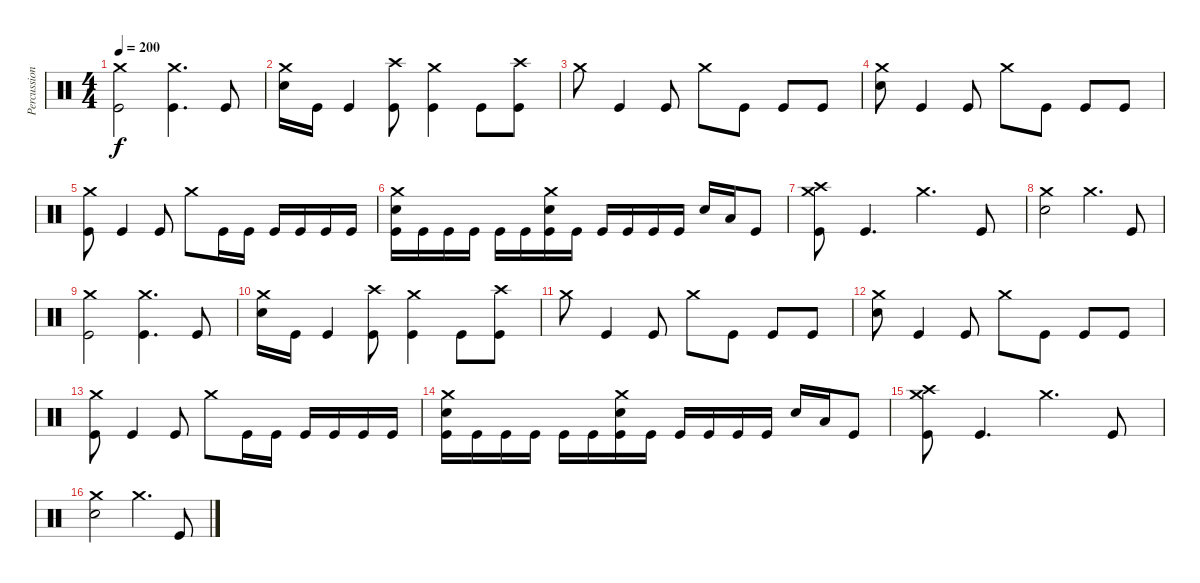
\track ("Percussion" "Percussion") {instrument percussion}
\staff {score}
\articulation defaults
\ts (4 4)
\tempo 200
\clef neutral
\ks c
("Crash medium (hit)" "Kick (hit)").2{dy f} ("Crash medium (hit)" "Kick (hit)").4{d} "Kick (hit)".8 |
("Crash medium (hit)" "Snare (hit) 2").16 "Kick (hit)".16 "Kick (hit)".4 ("Crash high (hit)" "Kick (hit)").8 ("Crash medium (hit)" "Kick (hit)").4 "Kick (hit)".8 ("Crash high (hit)" "Kick (hit)").8 |
"Crash medium (hit)".8 "Kick (hit)".4 "Kick (hit)".8 "Crash medium (hit)".8 "Kick (hit)".8 "Kick (hit)".8 "Kick (hit)".8 |
("Crash medium (hit)" "Snare (hit) 2").8 "Kick (hit)".4 "Kick (hit)".8 "Crash medium (hit)".8 "Kick (hit)".8 "Kick (hit)".8 "Kick (hit)".8 |
("Crash medium (hit)" "Kick (hit)").8 "Kick (hit)".4 "Kick (hit)".8 "Crash medium (hit)".8 "Kick (hit)".16 "Kick (hit)".16 "Kick (hit)".16 "Kick (hit)".16 "Kick (hit)".16 "Kick (hit)".16 |
("Crash medium (hit)" "Snare (hit) 2" "Kick (hit)").16 "Kick (hit)".16 "Kick (hit)".16 "Kick (hit)".16 "Kick (hit)".16 "Kick (hit)".16 ("Crash medium (hit)" "Snare (hit) 2" "Kick (hit)").16 "Kick (hit)".16 "Kick (hit)".16 "Kick (hit)".16 "Kick (hit)".16 "Kick (hit)".16 "Snare (hit) 2".16 "Low Tom (hit)".16 "Kick (hit)".8 |
("Crash medium (hit)" "Crash high (hit)" "Kick (hit)").8 "Kick (hit)".4{d} "Crash medium (hit)".4{d} "Kick (hit)".8 |
("Crash medium (hit)" "Snare (hit) 2").2 "Crash medium (hit)".4{d} "Kick (hit)".8 |
("Crash medium (hit)" "Kick (hit)").2 ("Crash medium (hit)" "Kick (hit)").4{d} "Kick (hit)".8 |
("Crash medium (hit)" "Snare (hit) 2").16 "Kick (hit)".16 "Kick (hit)".4 ("Crash high (hit)" "Kick (hit)").8 ("Crash medium (hit)" "Kick (hit)").4 "Kick (hit)".8 ("Crash high (hit)" "Kick (hit)").8 |
"Crash medium (hit)".8 "Kick (hit)".4 "Kick (hit)".8 "Crash medium (hit)".8 "Kick (hit)".8 "Kick (hit)".8 "Kick (hit)".8 |
("Crash medium (hit)" "Snare (hit) 2").8 "Kick (hit)".4 "Kick (hit)".8 "Crash medium (hit)".8 "Kick (hit)".8 "Kick (hit)".8 "Kick (hit)".8 |
("Crash medium (hit)" "Kick (hit)").8 "Kick (hit)".4 "Kick (hit)".8 "Crash medium (hit)".8 "Kick (hit)".16 "Kick (hit)".16 "Kick (hit)".16 "Kick (hit)".16 "Kick (hit)".16 "Kick (hit)".16 |
("Crash medium (hit)" "Snare (hit) 2" "Kick (hit)").16 "Kick (hit)".16 "Kick (hit)".16 "Kick (hit)".16 "Kick (hit)".16 "Kick (hit)".16 ("Crash medium (hit)" "Snare (hit) 2" "Kick (hit)").16 "Kick (hit)".16 "Kick (hit)".16 "Kick (hit)".16 "Kick (hit)".16 "Kick (hit)".16 "Snare (hit) 2".16 "Low Tom (hit)".16 "Kick (hit)".8 |
("Crash medium (hit)" "Crash high (hit)" "Kick (hit)").8 "Kick (hit)".4{d} "Crash medium (hit)".4{d} "Kick (hit)".8 |
("Crash medium (hit)" "Snare (hit) 2").2 "Crash medium (hit)".4{d} "Kick (hit)".8
